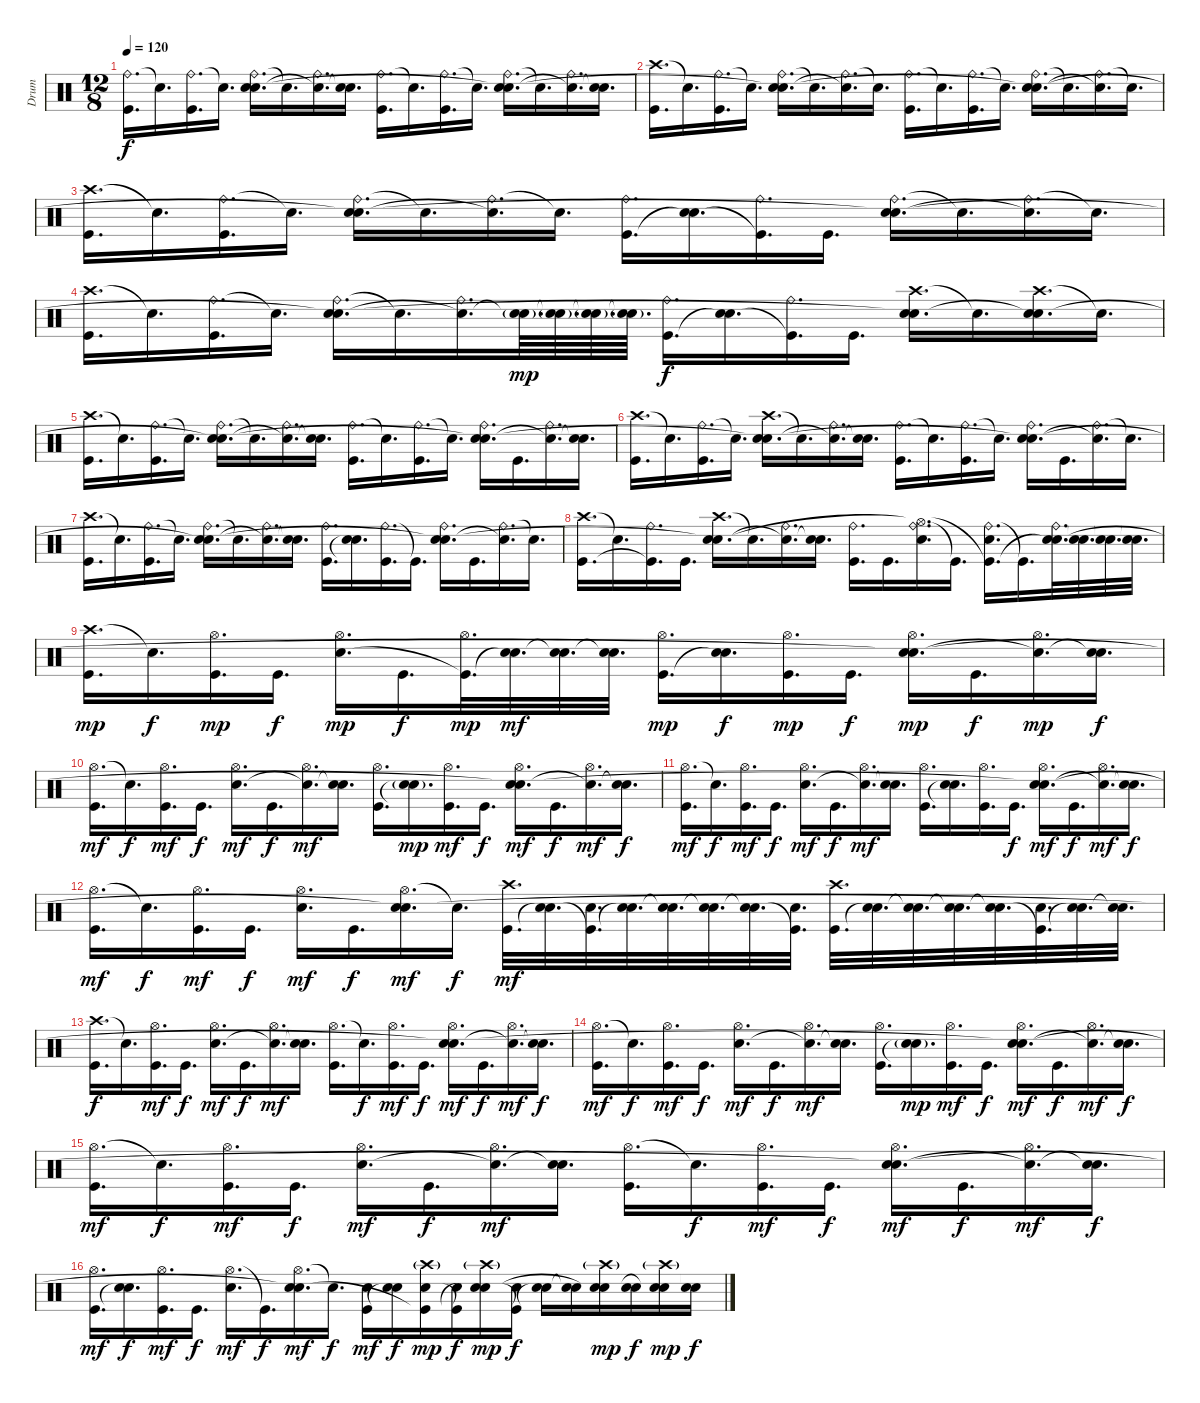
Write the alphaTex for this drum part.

\track ("Drum" "Drum") {instrument percussion}
\staff {score}
\articulation defaults
\ts (12 8)
\tempo 120
\clef neutral
\ks c
("Ride (bell)" "Kick (hit)").16{d dy f} "Snare (hit)"{t}.16{d} ("Ride (bell)" "Kick (hit)").16{d} "Snare (hit)"{t}.16{d} ("Ride (bell)" "Electric Snare (hit)" "Snare (hit)"{t}).16{d} "Snare (hit)"{t}.16{d} ("Ride (bell)" "Snare (hit)"{t}).16{d} ("Electric Snare (hit)" "Snare (hit)"{t}).16{d} ("Ride (bell)" "Kick (hit)").16{d} "Snare (hit)"{t}.16{d} ("Ride (bell)" "Kick (hit)").16{d} "Snare (hit)"{t}.16{d} ("Ride (bell)" "Electric Snare (hit)" "Snare (hit)"{t}).16{d} "Snare (hit)"{t}.16{d} ("Ride (bell)" "Snare (hit)"{t}).16{d} ("Electric Snare (hit)" "Snare (hit)"{t}).16{d} |
("Crash high (hit)" "Kick (hit)").16{d} "Snare (hit)"{t}.16{d} ("Ride (bell)" "Kick (hit)").16{d} "Snare (hit)"{t}.16{d} ("Ride (bell)" "Electric Snare (hit)" "Snare (hit)"{t}).16{d} "Snare (hit)"{t}.16{d} ("Ride (bell)" "Snare (hit)"{t}).16{d} "Snare (hit)"{t}.16{d} ("Ride (bell)" "Kick (hit)").16{d} "Snare (hit)"{t}.16{d} ("Ride (bell)" "Kick (hit)").16{d} "Snare (hit)"{t}.16{d} ("Ride (bell)" "Electric Snare (hit)" "Snare (hit)"{t}).16{d} "Snare (hit)"{t}.16{d} ("Ride (bell)" "Snare (hit)"{t}).16{d} "Snare (hit)"{t}.16{d} |
("Crash high (hit)" "Kick (hit)").16{d} "Snare (hit)"{t}.16{d} ("Ride (bell)" "Kick (hit)").16{d} "Snare (hit)"{t}.16{d} ("Ride (bell)" "Electric Snare (hit)" "Snare (hit)"{t}).16{d} "Snare (hit)"{t}.16{d} ("Ride (bell)" "Snare (hit)"{t}).16{d} "Snare (hit)"{t}.16{d} ("Ride (bell)" "Kick (hit)").16{d} ("Electric Snare (hit)" "Snare (hit)"{t}).16{d} ("Ride (bell)" "Kick (hit)"{t}).16{d} "Kick (hit)".16{d} ("Ride (bell)" "Electric Snare (hit)" "Snare (hit)"{t}).16{d} "Snare (hit)"{t}.16{d} ("Ride (bell)" "Snare (hit)"{t}).16{d} "Snare (hit)"{t}.16{d} |
("Crash high (hit)" "Kick (hit)").16{d} "Snare (hit)"{t}.16{d} ("Ride (bell)" "Kick (hit)").16{d} "Snare (hit)"{t}.16{d} ("Ride (bell)" "Electric Snare (hit)" "Snare (hit)"{t}).16{d} "Snare (hit)"{t}.16{d} ("Ride (bell)" "Snare (hit)"{t}).16{d} ("Electric Snare (hit)"{g} "Snare (hit)"{t}).64{d dy mp} ("Electric Snare (hit)"{g} "Snare (hit)"{t}).64{d} ("Electric Snare (hit)"{g} "Snare (hit)"{t}).64{d} ("Electric Snare (hit)"{g} "Snare (hit)"{t}).64{d} ("Ride (bell)" "Kick (hit)").16{d dy f} ("Electric Snare (hit)" "Snare (hit)"{t}).16{d} ("Ride (bell)" "Kick (hit)"{t}).16{d} "Kick (hit)".16{d} ("Crash high (hit)" "Electric Snare (hit)" "Snare (hit)"{t}).16{d} "Snare (hit)"{t}.16{d} ("Crash high (hit)" "Electric Snare (hit)" "Snare (hit)"{t}).16{d} "Snare (hit)"{t}.16{d} |
("Crash high (hit)" "Kick (hit)").16{d} "Snare (hit)"{t}.16{d} ("Ride (bell)" "Kick (hit)").16{d} "Snare (hit)"{t}.16{d} ("Ride (bell)" "Electric Snare (hit)" "Snare (hit)"{t}).16{d} "Snare (hit)"{t}.16{d} ("Ride (bell)" "Snare (hit)"{t}).16{d} ("Electric Snare (hit)" "Snare (hit)"{t}).16{d} ("Ride (bell)" "Kick (hit)").16{d} "Snare (hit)"{t}.16{d} ("Ride (bell)" "Kick (hit)").16{d} "Snare (hit)"{t}.16{d} ("Ride (bell)" "Electric Snare (hit)" "Snare (hit)"{t}).16{d} "Kick (hit)".16{d} ("Ride (bell)" "Snare (hit)"{t}).16{d} ("Electric Snare (hit)" "Snare (hit)"{t}).16{d} |
("Crash high (hit)" "Kick (hit)").16{d} "Snare (hit)"{t}.16{d} ("Ride (bell)" "Kick (hit)").16{d} "Snare (hit)"{t}.16{d} ("Crash high (hit)" "Electric Snare (hit)" "Snare (hit)"{t}).16{d} "Snare (hit)"{t}.16{d} ("Ride (bell)" "Snare (hit)"{t}).16{d} ("Electric Snare (hit)" "Snare (hit)"{t}).16{d} ("Ride (bell)" "Kick (hit)").16{d} "Snare (hit)"{t}.16{d} ("Ride (bell)" "Kick (hit)").16{d} "Snare (hit)"{t}.16{d} ("Ride (bell)" "Electric Snare (hit)" "Snare (hit)"{t}).16{d} "Kick (hit)".16{d} ("Ride (bell)" "Snare (hit)"{t}).16{d} "Snare (hit)"{t}.16{d} |
("Crash high (hit)" "Kick (hit)").16{d} "Snare (hit)"{t}.16{d} ("Ride (bell)" "Kick (hit)").16{d} "Snare (hit)"{t}.16{d} ("Ride (bell)" "Electric Snare (hit)" "Snare (hit)"{t}).16{d} "Snare (hit)"{t}.16{d} ("Ride (bell)" "Snare (hit)"{t}).16{d} ("Electric Snare (hit)" "Snare (hit)"{t}).16{d} ("Ride (bell)" "Kick (hit)").16{d} ("Electric Snare (hit)" "Snare (hit)"{t}).16{d} ("Ride (bell)" "Kick (hit)").16{d} "Kick (hit)"{t}.16{d} ("Ride (bell)" "Electric Snare (hit)" "Snare (hit)"{t}).16{d} "Kick (hit)".16{d} ("Ride (bell)" "Snare (hit)"{t}).16{d} "Snare (hit)"{t}.16{d} |
("Crash high (hit)" "Kick (hit)").16{d} "Snare (hit)"{t}.16{d} ("Ride (bell)" "Kick (hit)"{t}).16{d} "Kick (hit)".16{d} ("Crash high (hit)" "Electric Snare (hit)" "Snare (hit)"{t}).16{d} "Snare (hit)"{t}.16{d} ("Ride (bell)" "Snare (hit)"{t}).16{d} ("Electric Snare (hit)" "Snare (hit)"{t}).16{d} ("Ride (bell)" "Kick (hit)").16{d} "Kick (hit)".16{d} ("Ride (bell)" "Electric Snare (hit)" "Hi-Hat (open)"{t}).16{d} "Kick (hit)"{t}.16{d} ("Ride (bell)" "Electric Snare (hit)" "Kick (hit)"{t}).16{d} "Kick (hit)"{t}.16{d} ("Ride (bell)" "Electric Snare (hit)" "Snare (hit)"{t}).32{d} ("Electric Snare (hit)" "Snare (hit)"{t}).32{d} ("Electric Snare (hit)" "Snare (hit)"{t}).32{d} ("Electric Snare (hit)" "Snare (hit)"{t}).32{d} |
("Crash high (hit)" "Kick (hit)").16{d dy mp} "Snare (hit)"{t}.16{d dy f} ("Hi-Hat (open)" "Kick (hit)").16{d dy mp} "Kick (hit)".16{d dy f} ("Hi-Hat (open)" "Electric Snare (hit)").16{d dy mp} "Kick (hit)".16{d dy f} ("Hi-Hat (open)" "Kick (hit)"{t}).32{d dy mp} ("Electric Snare (hit)" "Snare (hit)"{t}).32{d dy mf} ("Electric Snare (hit)" "Snare (hit)"{t}).32{d} ("Electric Snare (hit)" "Snare (hit)"{t}).32{d} ("Hi-Hat (open)" "Kick (hit)").16{d dy mp} ("Electric Snare (hit)" "Snare (hit)"{t}).16{d dy f} ("Hi-Hat (open)" "Kick (hit)").16{d dy mp} "Kick (hit)".16{d dy f} ("Hi-Hat (open)" "Electric Snare (hit)" "Snare (hit)"{t}).16{d dy mp} "Kick (hit)".16{d dy f} ("Hi-Hat (open)" "Snare (hit)"{t}).16{d dy mp} ("Electric Snare (hit)" "Snare (hit)"{t}).16{d dy f} |
("Hi-Hat (open)" "Kick (hit)").16{d dy mf} "Snare (hit)"{t}.16{d dy f} ("Hi-Hat (open)" "Kick (hit)").16{d dy mf} "Kick (hit)".16{d dy f} ("Hi-Hat (open)" "Electric Snare (hit)").16{d dy mf} "Kick (hit)".16{d dy f} ("Hi-Hat (open)" "Snare (hit)"{t}).16{d dy mf} ("Electric Snare (hit)" "Snare (hit)"{t}).16{d} ("Hi-Hat (open)" "Kick (hit)").16{d} ("Electric Snare (hit)"{g} "Snare (hit)"{t}).16{d dy mp} ("Hi-Hat (open)" "Kick (hit)").16{d dy mf} "Kick (hit)".16{d dy f} ("Hi-Hat (open)" "Electric Snare (hit)" "Snare (hit)"{t}).16{d dy mf} "Kick (hit)".16{d dy f} ("Hi-Hat (open)" "Snare (hit)"{t}).16{d dy mf} ("Electric Snare (hit)" "Snare (hit)"{t}).16{d dy f} |
("Hi-Hat (open)" "Kick (hit)").16{d dy mf} "Snare (hit)"{t}.16{d dy f} ("Hi-Hat (open)" "Kick (hit)").16{d dy mf} "Kick (hit)".16{d dy f} ("Hi-Hat (open)" "Electric Snare (hit)").16{d dy mf} "Kick (hit)".16{d dy f} ("Hi-Hat (open)" "Snare (hit)"{t}).16{d dy mf} ("Electric Snare (hit)" "Snare (hit)"{t}).16{d} ("Hi-Hat (open)" "Kick (hit)").16{d} ("Electric Snare (hit)" "Snare (hit)"{t}).16{d} ("Hi-Hat (open)" "Kick (hit)").16{d} "Kick (hit)".16{d dy f} ("Hi-Hat (open)" "Electric Snare (hit)" "Snare (hit)"{t}).16{d dy mf} "Kick (hit)".16{d dy f} ("Hi-Hat (open)" "Snare (hit)"{t}).16{d dy mf} ("Electric Snare (hit)" "Snare (hit)"{t}).16{d dy f} |
("Hi-Hat (open)" "Kick (hit)").16{d dy mf} "Snare (hit)"{t}.16{d dy f} ("Hi-Hat (open)" "Kick (hit)").16{d dy mf} "Kick (hit)".16{d dy f} ("Hi-Hat (open)" "Electric Snare (hit)").16{d dy mf} "Kick (hit)".16{d dy f} ("Hi-Hat (open)" "Electric Snare (hit)" "Snare (hit)"{t}).16{d dy mf} "Snare (hit)"{t}.16{d dy f} ("Crash high (hit)" "Kick (hit)").32{d dy mf} ("Electric Snare (hit)" "Snare (hit)"{t}).32{d} ("Electric Snare (hit)" "Kick (hit)"{t}).32{d} ("Electric Snare (hit)" "Snare (hit)"{t}).32{d} ("Electric Snare (hit)" "Snare (hit)"{t}).32{d} ("Electric Snare (hit)" "Snare (hit)"{t}).32{d} ("Electric Snare (hit)" "Snare (hit)"{t}).32{d} ("Electric Snare (hit)" "Kick (hit)"{t}).32{d} ("Crash high (hit)" "Kick (hit)").32{d} ("Electric Snare (hit)" "Snare (hit)"{t}).32{d} ("Electric Snare (hit)" "Snare (hit)"{t}).32{d} ("Electric Snare (hit)" "Snare (hit)"{t}).32{d} ("Electric Snare (hit)" "Snare (hit)"{t}).32{d} ("Electric Snare (hit)" "Kick (hit)"{t}).32{d} ("Electric Snare (hit)" "Snare (hit)"{t}).32{d} ("Electric Snare (hit)" "Snare (hit)"{t}).32{d} |
("Crash high (hit)" "Kick (hit)").16{d dy f} "Snare (hit)"{t}.16{d} ("Hi-Hat (open)" "Kick (hit)").16{d dy mf} "Kick (hit)".16{d dy f} ("Hi-Hat (open)" "Electric Snare (hit)").16{d dy mf} "Kick (hit)".16{d dy f} ("Hi-Hat (open)" "Snare (hit)"{t}).16{d dy mf} ("Electric Snare (hit)" "Snare (hit)"{t}).16{d} ("Hi-Hat (open)" "Kick (hit)").16{d} "Snare (hit)"{t}.16{d dy f} ("Hi-Hat (open)" "Kick (hit)").16{d dy mf} "Kick (hit)".16{d dy f} ("Hi-Hat (open)" "Electric Snare (hit)" "Snare (hit)"{t}).16{d dy mf} "Kick (hit)".16{d dy f} ("Hi-Hat (open)" "Snare (hit)"{t}).16{d dy mf} ("Electric Snare (hit)" "Snare (hit)"{t}).16{d dy f} |
("Hi-Hat (open)" "Kick (hit)").16{d dy mf} "Snare (hit)"{t}.16{d dy f} ("Hi-Hat (open)" "Kick (hit)").16{d dy mf} "Kick (hit)".16{d dy f} ("Hi-Hat (open)" "Electric Snare (hit)").16{d dy mf} "Kick (hit)".16{d dy f} ("Hi-Hat (open)" "Snare (hit)"{t}).16{d dy mf} ("Electric Snare (hit)" "Snare (hit)"{t}).16{d} ("Hi-Hat (open)" "Kick (hit)").16{d} ("Electric Snare (hit)"{g} "Snare (hit)"{t}).16{d dy mp} ("Hi-Hat (open)" "Kick (hit)").16{d dy mf} "Kick (hit)".16{d dy f} ("Hi-Hat (open)" "Electric Snare (hit)" "Snare (hit)"{t}).16{d dy mf} "Kick (hit)".16{d dy f} ("Hi-Hat (open)" "Snare (hit)"{t}).16{d dy mf} ("Electric Snare (hit)" "Snare (hit)"{t}).16{d dy f} |
("Hi-Hat (open)" "Kick (hit)").16{d dy mf} "Snare (hit)"{t}.16{d dy f} ("Hi-Hat (open)" "Kick (hit)").16{d dy mf} "Kick (hit)".16{d dy f} ("Hi-Hat (open)" "Electric Snare (hit)").16{d dy mf} "Kick (hit)".16{d dy f} ("Hi-Hat (open)" "Snare (hit)"{t}).16{d dy mf} ("Electric Snare (hit)" "Snare (hit)"{t}).16{d} ("Hi-Hat (open)" "Kick (hit)").16{d} "Snare (hit)"{t}.16{d dy f} ("Hi-Hat (open)" "Kick (hit)").16{d dy mf} "Kick (hit)".16{d dy f} ("Hi-Hat (open)" "Electric Snare (hit)" "Snare (hit)"{t}).16{d dy mf} "Kick (hit)".16{d dy f} ("Hi-Hat (open)" "Snare (hit)"{t}).16{d dy mf} ("Electric Snare (hit)" "Snare (hit)"{t}).16{d dy f} |
("Hi-Hat (open)" "Kick (hit)").16{d dy mf} ("Electric Snare (hit)" "Snare (hit)"{t}).16{d dy f} ("Hi-Hat (open)" "Kick (hit)").16{d dy mf} "Kick (hit)".16{d dy f} ("Hi-Hat (open)" "Electric Snare (hit)").16{d dy mf} "Kick (hit)"{t}.16{d dy f} ("Hi-Hat (open)" "Electric Snare (hit)" "Snare (hit)"{t}).16{d dy mf} "Snare (hit)"{t}.16{d dy f} ("Electric Snare (hit)" "Kick (hit)").16{dy mf} ("Electric Snare (hit)" "Snare (hit)"{t}).16{dy f} ("Crash high (hit)"{g} "Electric Snare (hit)" "Kick (hit)"{t}).16{dy mp} ("Electric Snare (hit)" "Kick (hit)"{t}).16{dy f} ("Crash high (hit)"{g} "Electric Snare (hit)" "Snare (hit)"{t}).16{dy mp} ("Electric Snare (hit)" "Kick (hit)"{t}).16{dy f} ("Electric Snare (hit)" "Snare (hit)"{t}).16 ("Electric Snare (hit)" "Snare (hit)"{t}).16 ("Crash high (hit)"{g} "Electric Snare (hit)" "Snare (hit)"{t}).16{dy mp} ("Electric Snare (hit)" "Snare (hit)"{t}).16{dy f} ("Crash high (hit)"{g} "Electric Snare (hit)" "Snare (hit)"{t}).16{dy mp} ("Electric Snare (hit)" "Snare (hit)"{t}).16{dy f}
